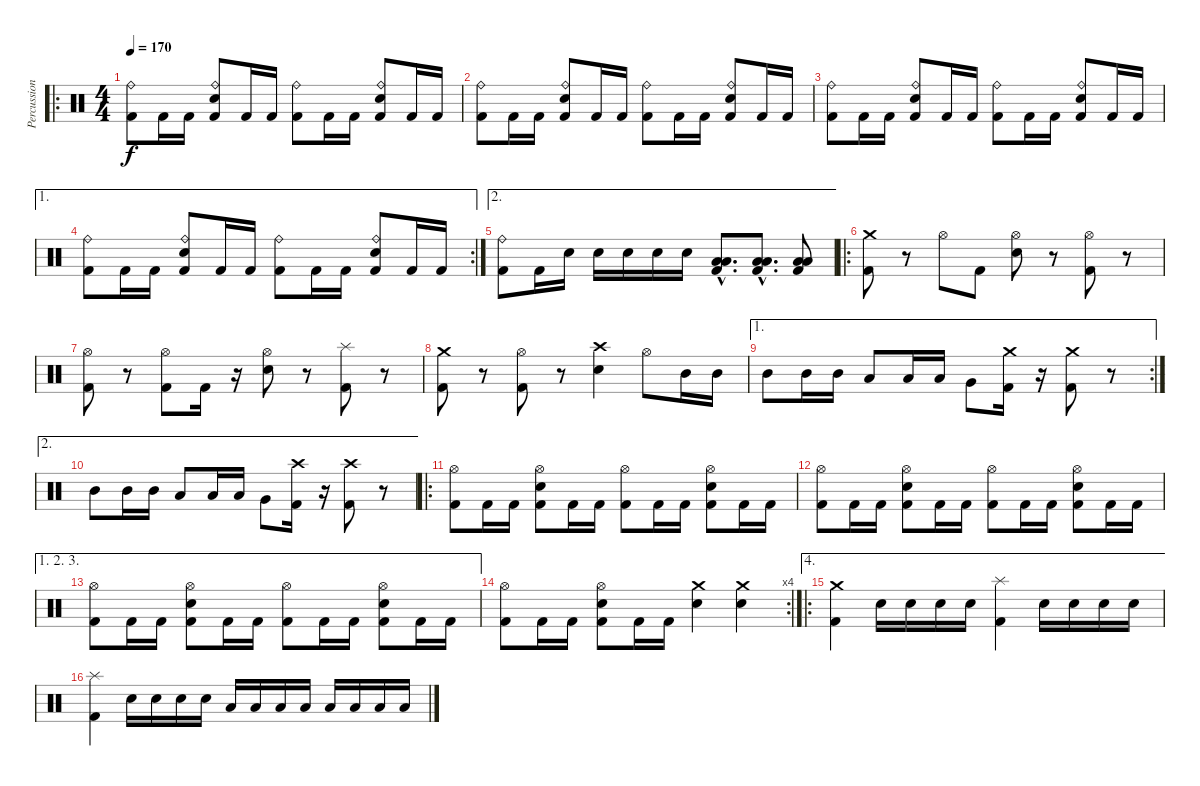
\track ("Percussions" "Percussion") {instrument percussion}
\staff {score}
\articulation defaults
\ro
\ts (4 4)
\tempo 170
\clef neutral
\ks c
("Kick (hit) 2" "Ride (bell)").8{dy f} "Kick (hit) 2".16 "Kick (hit) 2".16 ("Kick (hit) 2" "Snare (hit) 2" "Ride (bell)").8 "Kick (hit) 2".16 "Kick (hit) 2".16 ("Kick (hit) 2" "Ride (bell)").8 "Kick (hit) 2".16 "Kick (hit) 2".16 ("Kick (hit) 2" "Snare (hit) 2" "Ride (bell)").8 "Kick (hit) 2".16 "Kick (hit) 2".16 |
("Kick (hit) 2" "Ride (bell)").8 "Kick (hit) 2".16 "Kick (hit) 2".16 ("Kick (hit) 2" "Snare (hit) 2" "Ride (bell)").8 "Kick (hit) 2".16 "Kick (hit) 2".16 ("Kick (hit) 2" "Ride (bell)").8 "Kick (hit) 2".16 "Kick (hit) 2".16 ("Kick (hit) 2" "Snare (hit) 2" "Ride (bell)").8 "Kick (hit) 2".16 "Kick (hit) 2".16 |
("Kick (hit) 2" "Ride (bell)").8 "Kick (hit) 2".16 "Kick (hit) 2".16 ("Kick (hit) 2" "Snare (hit) 2" "Ride (bell)").8 "Kick (hit) 2".16 "Kick (hit) 2".16 ("Kick (hit) 2" "Ride (bell)").8 "Kick (hit) 2".16 "Kick (hit) 2".16 ("Kick (hit) 2" "Snare (hit) 2" "Ride (bell)").8 "Kick (hit) 2".16 "Kick (hit) 2".16 |
\ae 1
\rc 2
("Kick (hit) 2" "Ride (bell)").8 "Kick (hit) 2".16 "Kick (hit) 2".16 ("Kick (hit) 2" "Snare (hit) 2" "Ride (bell)").8 "Kick (hit) 2".16 "Kick (hit) 2".16 ("Kick (hit) 2" "Ride (bell)").8 "Kick (hit) 2".16 "Kick (hit) 2".16 ("Kick (hit) 2" "Snare (hit) 2" "Ride (bell)").8 "Kick (hit) 2".16 "Kick (hit) 2".16 |
\ae 2
("Kick (hit) 2" "Ride (bell)").8 "Kick (hit) 2".16 "Snare (hit) 2".16 "Snare (hit) 2".16 "Snare (hit) 2".16 "Snare (hit) 2".16 "Snare (hit) 2".16 ("Kick (hit) 2"{hac} "Low Floor Tom (hit)"{hac} "Low Tom (hit)"{hac}).8{d} ("Kick (hit) 2"{hac} "Low Floor Tom (hit)"{hac} "Low Tom (hit)"{hac}).8{d} ("Kick (hit) 2" "Low Floor Tom (hit)" "Low Tom (hit)").8 |
\ro
("Kick (hit) 2" "Crash medium (hit)").8 r.8 "Hi-Hat (open)".8 "Kick (hit) 2".8 ("Snare (hit) 2" "Hi-Hat (open)").8 r.8 ("Kick (hit) 2" "Hi-Hat (open)").8 r.8 |
("Kick (hit) 2" "Hi-Hat (open)").8 r.8 ("Kick (hit) 2" "Hi-Hat (open)").8 "Kick (hit) 2".16 r.16 ("Snare (hit) 2" "Hi-Hat (open)").8 r.8 ("Kick (hit) 2" "Splash (hit)").8 r.8 |
("Kick (hit) 2" "Crash medium (hit)").8 r.8 ("Kick (hit) 2" "Hi-Hat (open)").8 r.8 ("Snare (hit) 2" "Crash high (hit)").4 "Hi-Hat (open)".8 "Mid Tom (hit)".16 "Mid Tom (hit)".16 |
\ae 1
\rc 2 "Mid Tom (hit)".8 "Mid Tom (hit)".16 "Mid Tom (hit)".16 "Low Tom (hit)".8 "Low Tom (hit)".16 "Low Tom (hit)".16 "Very Low Tom (hit)".8
("Kick (hit) 2" "Crash medium (hit)").16 r.16 ("Kick (hit) 2" "Crash medium (hit)").8 r.8 |
\ae 2 "Mid Tom (hit)".8 "Mid Tom (hit)".16 "Mid Tom (hit)".16 "Low Tom (hit)".8 "Low Tom (hit)".16 "Low Tom (hit)".16 "Very Low Tom (hit)".8
("Kick (hit) 2" "Crash high (hit)").16 r.16 ("Kick (hit) 2" "Crash high (hit)").8 r.8 |
\ro
("Kick (hit) 2" "Hi-Hat (open)").8 "Kick (hit) 2".16 "Kick (hit) 2".16 ("Kick (hit) 2" "Snare (hit) 2" "Hi-Hat (open)").8 "Kick (hit) 2".16 "Kick (hit) 2".16 ("Kick (hit) 2" "Hi-Hat (open)").8 "Kick (hit) 2".16 "Kick (hit) 2".16 ("Kick (hit) 2" "Snare (hit) 2" "Hi-Hat (open)").8 "Kick (hit) 2".16 "Kick (hit) 2".16 |
("Kick (hit) 2" "Hi-Hat (open)").8 "Kick (hit) 2".16 "Kick (hit) 2".16 ("Kick (hit) 2" "Snare (hit) 2" "Hi-Hat (open)").8 "Kick (hit) 2".16 "Kick (hit) 2".16 ("Kick (hit) 2" "Hi-Hat (open)").8 "Kick (hit) 2".16 "Kick (hit) 2".16 ("Kick (hit) 2" "Snare (hit) 2" "Hi-Hat (open)").8 "Kick (hit) 2".16 "Kick (hit) 2".16 |
\ae (1 2 3)
("Kick (hit) 2" "Hi-Hat (open)").8 "Kick (hit) 2".16 "Kick (hit) 2".16 ("Kick (hit) 2" "Snare (hit) 2" "Hi-Hat (open)").8 "Kick (hit) 2".16 "Kick (hit) 2".16 ("Kick (hit) 2" "Hi-Hat (open)").8 "Kick (hit) 2".16 "Kick (hit) 2".16 ("Kick (hit) 2" "Snare (hit) 2" "Hi-Hat (open)").8 "Kick (hit) 2".16 "Kick (hit) 2".16 |
\rc 4
("Kick (hit) 2" "Hi-Hat (open)").8 "Kick (hit) 2".16 "Kick (hit) 2".16 ("Kick (hit) 2" "Snare (hit) 2" "Hi-Hat (open)").8 "Kick (hit) 2".16 "Kick (hit) 2".16 ("Snare (hit) 2" "Crash medium (hit)").4 ("Snare (hit) 2" "Crash medium (hit)").4 |
\ae 4
\ro
("Kick (hit) 2" "Crash medium (hit)").4 "Snare (hit) 2".16 "Snare (hit) 2".16 "Snare (hit) 2".16 "Snare (hit) 2".16 ("Kick (hit) 2" "Splash (hit)").4 "Snare (hit) 2".16 "Snare (hit) 2".16 "Snare (hit) 2".16 "Snare (hit) 2".16 |
("Kick (hit) 2" "Splash (hit)").4 "Snare (hit) 2".16 "Snare (hit) 2".16 "Snare (hit) 2".16 "Snare (hit) 2".16 "Low Tom (hit)".16 "Low Tom (hit)".16 "Low Tom (hit)".16 "Low Tom (hit)".16 "Low Floor Tom (hit)".16 "Low Floor Tom (hit)".16 "Low Floor Tom (hit)".16 "Low Floor Tom (hit)".16
